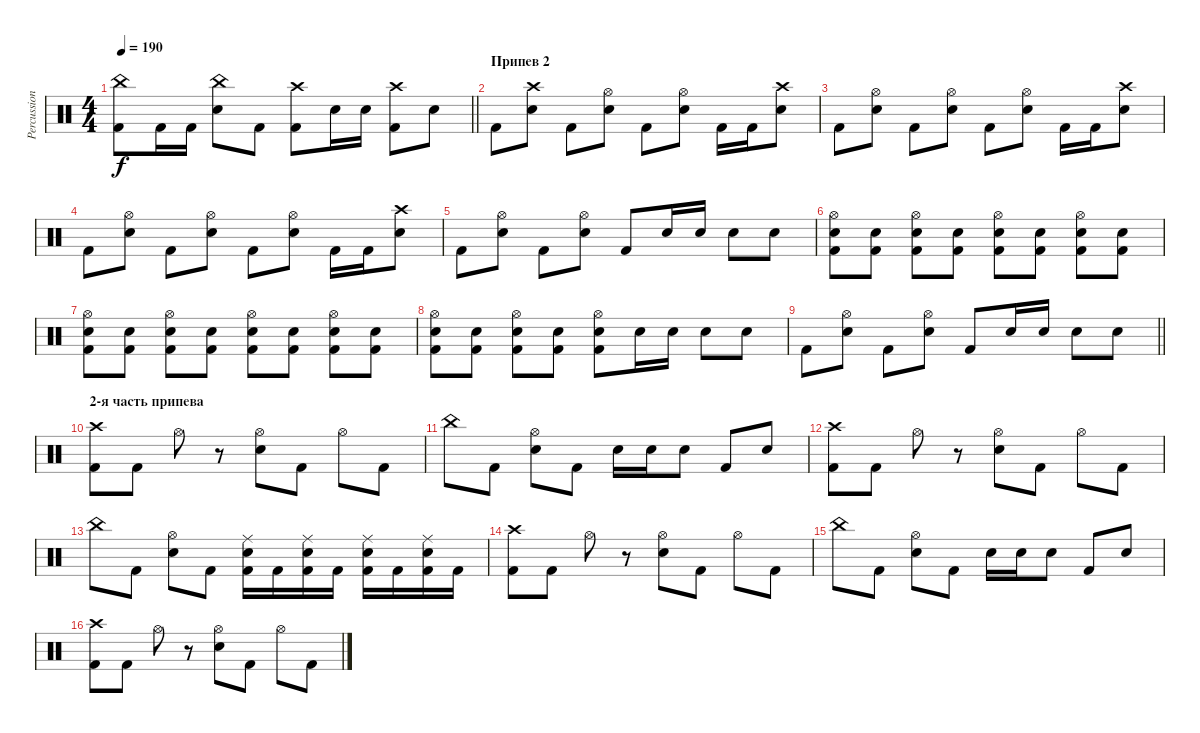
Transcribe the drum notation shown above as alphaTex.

\track ("Percussions" "Percussion") {instrument percussion}
\staff {score}
\articulation defaults
\ts (4 4)
\tempo 190
\clef neutral
\barLineRight lightlight
\ks c
("Kick (hit) 2" "China (hit)").8{dy f} "Kick (hit) 2".16 "Kick (hit) 2".16 ("Electric Snare (hit)" "China (hit)").8 "Kick (hit) 2".8 ("Kick (hit) 2" "Crash high (hit)").8 "Electric Snare (hit)".16 "Electric Snare (hit)".16 ("Kick (hit) 2" "Crash high (hit)").8 "Electric Snare (hit)".8 |
\section ("" "Припев 2")
"Kick (hit) 2".8 ("Crash high (hit)" "Electric Snare (hit)").8 "Kick (hit) 2".8 ("Hi-Hat (open)" "Electric Snare (hit)").8 "Kick (hit) 2".8 ("Hi-Hat (open)" "Electric Snare (hit)").8 "Kick (hit) 2".16 "Kick (hit) 2".16 ("Crash high (hit)" "Electric Snare (hit)").8 |
"Kick (hit) 2".8 ("Hi-Hat (open)" "Electric Snare (hit)").8 "Kick (hit) 2".8 ("Hi-Hat (open)" "Electric Snare (hit)").8 "Kick (hit) 2".8 ("Electric Snare (hit)" "Hi-Hat (open)").8 "Kick (hit) 2".16 "Kick (hit) 2".16 ("Electric Snare (hit)" "Crash high (hit)").8 |
"Kick (hit) 2".8 ("Hi-Hat (open)" "Electric Snare (hit)").8 "Kick (hit) 2".8 ("Hi-Hat (open)" "Electric Snare (hit)").8 "Kick (hit) 2".8 ("Hi-Hat (open)" "Electric Snare (hit)").8 "Kick (hit) 2".16 "Kick (hit) 2".16 ("Crash high (hit)" "Electric Snare (hit)").8 |
"Kick (hit) 2".8 ("Hi-Hat (open)" "Electric Snare (hit)").8 "Kick (hit) 2".8 ("Hi-Hat (open)" "Electric Snare (hit)").8 "Kick (hit) 2".8 "Electric Snare (hit)".16 "Electric Snare (hit)".16 "Electric Snare (hit)".8 "Electric Snare (hit)".8 |
("Kick (hit) 2" "Electric Snare (hit)" "Hi-Hat (open)").8 ("Kick (hit) 2" "Electric Snare (hit)").8 ("Kick (hit) 2" "Electric Snare (hit)" "Hi-Hat (open)").8 ("Kick (hit) 2" "Electric Snare (hit)").8 ("Kick (hit) 2" "Electric Snare (hit)" "Hi-Hat (open)").8 ("Kick (hit) 2" "Electric Snare (hit)").8 ("Kick (hit) 2" "Electric Snare (hit)" "Hi-Hat (open)").8 ("Kick (hit) 2" "Electric Snare (hit)").8 |
("Kick (hit) 2" "Electric Snare (hit)" "Hi-Hat (open)").8 ("Kick (hit) 2" "Electric Snare (hit)").8 ("Kick (hit) 2" "Electric Snare (hit)" "Hi-Hat (open)").8 ("Kick (hit) 2" "Electric Snare (hit)").8 ("Kick (hit) 2" "Electric Snare (hit)" "Hi-Hat (open)").8 ("Kick (hit) 2" "Electric Snare (hit)").8 ("Kick (hit) 2" "Electric Snare (hit)" "Hi-Hat (open)").8 ("Kick (hit) 2" "Electric Snare (hit)").8 |
("Kick (hit) 2" "Electric Snare (hit)" "Hi-Hat (open)").8 ("Kick (hit) 2" "Electric Snare (hit)").8 ("Kick (hit) 2" "Electric Snare (hit)" "Hi-Hat (open)").8 ("Kick (hit) 2" "Electric Snare (hit)").8 ("Kick (hit) 2" "Electric Snare (hit)" "Hi-Hat (open)").8 "Electric Snare (hit)".16 "Electric Snare (hit)".16 "Electric Snare (hit)".8 "Electric Snare (hit)".8 |
\barLineRight lightlight "Kick (hit) 2".8
("Hi-Hat (open)" "Electric Snare (hit)").8 "Kick (hit) 2".8 ("Hi-Hat (open)" "Electric Snare (hit)").8 "Kick (hit) 2".8 "Electric Snare (hit)".16 "Electric Snare (hit)".16 "Electric Snare (hit)".8 "Electric Snare (hit)".8 |
\section ("" "2-я часть припева")
("Kick (hit) 2" "Crash high (hit)").8 "Kick (hit) 2".8 "Hi-Hat (open)".8 r.8 ("Electric Snare (hit)" "Hi-Hat (open)").8 "Kick (hit) 2".8 "Hi-Hat (open)".8 "Kick (hit) 2".8 |
"China (hit)".8 "Kick (hit) 2".8 ("Electric Snare (hit)" "Hi-Hat (open)").8 "Kick (hit) 2".8 "Electric Snare (hit)".16 "Electric Snare (hit)".16 "Electric Snare (hit)".8 "Kick (hit) 2".8 "Electric Snare (hit)".8 |
("Kick (hit) 2" "Crash high (hit)").8 "Kick (hit) 2".8 "Hi-Hat (open)".8 r.8 ("Electric Snare (hit)" "Hi-Hat (open)").8 "Kick (hit) 2".8 "Hi-Hat (open)".8 "Kick (hit) 2".8 |
"China (hit)".8 "Kick (hit) 2".8 ("Electric Snare (hit)" "Hi-Hat (open)").8 "Kick (hit) 2".8 ("Kick (hit) 2" "Electric Snare (hit)" "Ride (middle)").16 "Kick (hit) 2".16 ("Kick (hit) 2" "Electric Snare (hit)" "Ride (middle)").16 "Kick (hit) 2".16 ("Kick (hit) 2" "Electric Snare (hit)" "Ride (middle)").16 "Kick (hit) 2".16 ("Kick (hit) 2" "Electric Snare (hit)" "Ride (middle)").16 "Kick (hit) 2".16 |
("Kick (hit) 2" "Crash high (hit)").8 "Kick (hit) 2".8 "Hi-Hat (open)".8 r.8 ("Electric Snare (hit)" "Hi-Hat (open)").8 "Kick (hit) 2".8 "Hi-Hat (open)".8 "Kick (hit) 2".8 |
"China (hit)".8 "Kick (hit) 2".8 ("Electric Snare (hit)" "Hi-Hat (open)").8 "Kick (hit) 2".8 "Electric Snare (hit)".16 "Electric Snare (hit)".16 "Electric Snare (hit)".8 "Kick (hit) 2".8 "Electric Snare (hit)".8 |
("Kick (hit) 2" "Crash high (hit)").8 "Kick (hit) 2".8 "Hi-Hat (open)".8 r.8 ("Electric Snare (hit)" "Hi-Hat (open)").8 "Kick (hit) 2".8 "Hi-Hat (open)".8 "Kick (hit) 2".8
